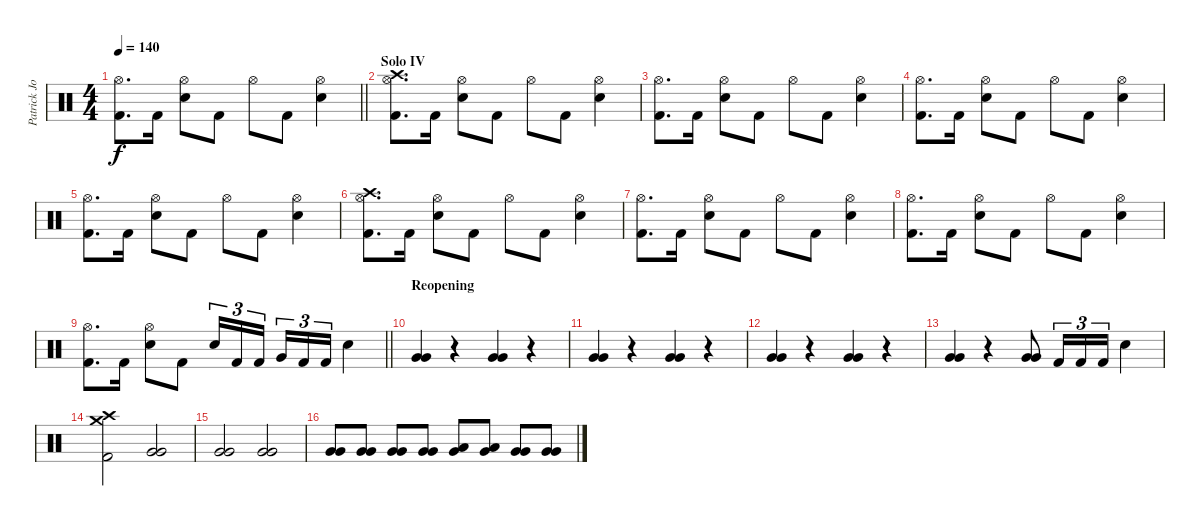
\track ("Patrick Johansson" "Patrick Jo") {instrument percussion}
\staff {score}
\articulation defaults
\ts (4 4)
\tempo 140
\clef neutral
\barLineRight lightlight
\ks c
("Hi-Hat (open)" "Kick (hit) 2").8{d dy f} "Kick (hit) 2".16 ("Hi-Hat (open)" "Snare (hit) 2").8 "Kick (hit) 2".8 "Hi-Hat (open)".8 "Kick (hit) 2".8 ("Hi-Hat (open)" "Snare (hit) 2").4 |
\section ("" "Solo IV")
("Crash high (hit)" "Hi-Hat (open)" "Kick (hit) 2").8{d} "Kick (hit) 2".16 ("Hi-Hat (open)" "Snare (hit) 2").8 "Kick (hit) 2".8 "Hi-Hat (open)".8 "Kick (hit) 2".8 ("Hi-Hat (open)" "Snare (hit) 2").4 |
("Hi-Hat (open)" "Kick (hit) 2").8{d} "Kick (hit) 2".16 ("Hi-Hat (open)" "Snare (hit) 2").8 "Kick (hit) 2".8 "Hi-Hat (open)".8 "Kick (hit) 2".8 ("Hi-Hat (open)" "Snare (hit) 2").4 |
("Hi-Hat (open)" "Kick (hit) 2").8{d} "Kick (hit) 2".16 ("Hi-Hat (open)" "Snare (hit) 2").8 "Kick (hit) 2".8 "Hi-Hat (open)".8 "Kick (hit) 2".8 ("Hi-Hat (open)" "Snare (hit) 2").4 |
("Hi-Hat (open)" "Kick (hit) 2").8{d} "Kick (hit) 2".16 ("Hi-Hat (open)" "Snare (hit) 2").8 "Kick (hit) 2".8 "Hi-Hat (open)".8 "Kick (hit) 2".8 ("Hi-Hat (open)" "Snare (hit) 2").4 |
("Crash high (hit)" "Hi-Hat (open)" "Kick (hit) 2").8{d} "Kick (hit) 2".16 ("Hi-Hat (open)" "Snare (hit) 2").8 "Kick (hit) 2".8 "Hi-Hat (open)".8 "Kick (hit) 2".8 ("Hi-Hat (open)" "Snare (hit) 2").4 |
("Hi-Hat (open)" "Kick (hit) 2").8{d} "Kick (hit) 2".16 ("Hi-Hat (open)" "Snare (hit) 2").8 "Kick (hit) 2".8 "Hi-Hat (open)".8 "Kick (hit) 2".8 ("Hi-Hat (open)" "Snare (hit) 2").4 |
("Hi-Hat (open)" "Kick (hit) 2").8{d} "Kick (hit) 2".16 ("Hi-Hat (open)" "Snare (hit) 2").8 "Kick (hit) 2".8 "Hi-Hat (open)".8 "Kick (hit) 2".8 ("Hi-Hat (open)" "Snare (hit) 2").4 |
\barLineRight lightlight
("Hi-Hat (open)" "Kick (hit) 2").8{d} "Kick (hit) 2".16 ("Hi-Hat (open)" "Snare (hit) 2").8 "Kick (hit) 2".8 "Snare (hit) 2".16{tu (3 2)} "Kick (hit) 2".16{tu (3 2)} "Kick (hit) 2".16{tu (3 2) beam splitsecondary} "Very Low Tom (hit)".16{tu (3 2)} "Kick (hit) 2".16{tu (3 2)} "Kick (hit) 2".16{tu (3 2)} "Snare (hit) 2".4 |
\section ("" "Reopening")
("Very Low Tom (hit)" "Very Low Tom (hit)").4 r.4 ("Very Low Tom (hit)" "Very Low Tom (hit)").4 r.4 |
("Very Low Tom (hit)" "Very Low Tom (hit)").4 r.4 ("Very Low Tom (hit)" "Very Low Tom (hit)").4 r.4 |
("Very Low Tom (hit)" "Very Low Tom (hit)").4 r.4 ("Very Low Tom (hit)" "Very Low Tom (hit)").4 r.4 |
("Very Low Tom (hit)" "Very Low Tom (hit)").4 r.4 ("Very Low Tom (hit)" "Very Low Tom (hit)").8 "Kick (hit) 2".16{tu (3 2)} "Kick (hit) 2".16{tu (3 2)} "Kick (hit) 2".16{tu (3 2)} "Snare (hit) 2".4 |
("Crash medium (hit)" "Crash high (hit)" "Kick (hit) 2").2 ("Very Low Tom (hit)" "Very Low Tom (hit)").2 |
("Very Low Tom (hit)" "Very Low Tom (hit)").2 ("Very Low Tom (hit)" "Very Low Tom (hit)").2 |
("Very Low Tom (hit)" "Very Low Tom (hit)").8 ("Very Low Tom (hit)" "Very Low Tom (hit)").8 ("Very Low Tom (hit)" "Very Low Tom (hit)").8 ("Very Low Tom (hit)" "Very Low Tom (hit)").8 ("Low Tom (hit)" "Very Low Tom (hit)").8 ("Low Tom (hit)" "Very Low Tom (hit)").8 ("Very Low Tom (hit)" "Very Low Tom (hit)").8 ("Very Low Tom (hit)" "Very Low Tom (hit)").8
